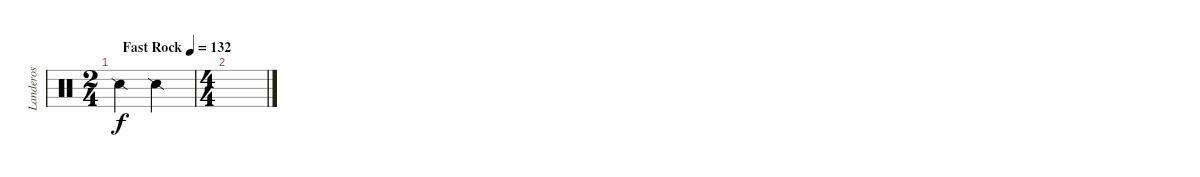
\track ("Landeros" "Landeros") {instrument percussion}
\staff {score}
\articulation defaults
\ts (2 4)
\tempo (132 "Fast Rock")
\clef neutral
\ks c "Snare (side stick) 2".4{dy f} "Snare (side stick) 2".4
|
\ts (4 4)
